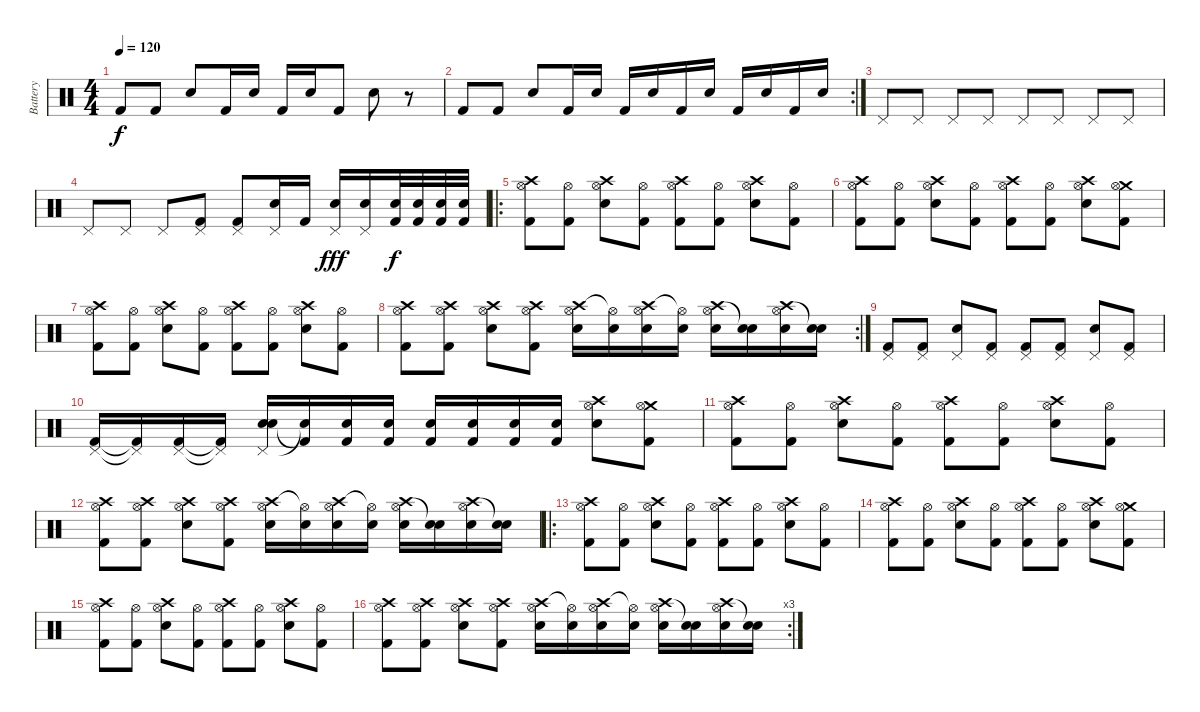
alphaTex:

\track ("Battery" "Battery") {instrument percussion}
\staff {score}
\articulation defaults
\ts (4 4)
\tempo 120
\clef neutral
\ks c "Kick (hit) 2".8{dy f} "Kick (hit) 2".8 "Electric Snare (hit)".8 "Kick (hit) 2".16 "Electric Snare (hit)".16 "Kick (hit) 2".16 "Electric Snare (hit)".16 "Kick (hit) 2".8 "Electric Snare (hit)".8
r.8 |
\rc 2 "Kick (hit) 2".8 "Kick (hit) 2".8 "Electric Snare (hit)".8 "Kick (hit) 2".16 "Electric Snare (hit)".16 "Kick (hit) 2".16 "Electric Snare (hit)".16 "Kick (hit) 2".16 "Electric Snare (hit)".16 "Kick (hit) 2".16 "Electric Snare (hit)".16 "Kick (hit) 2".16 "Electric Snare (hit)".16
|
"Pedal Hi-Hat (hit)".8 "Pedal Hi-Hat (hit)".8 "Pedal Hi-Hat (hit)".8 "Pedal Hi-Hat (hit)".8 "Pedal Hi-Hat (hit)".8 "Pedal Hi-Hat (hit)".8 "Pedal Hi-Hat (hit)".8 "Pedal Hi-Hat (hit)".8 |
"Pedal Hi-Hat (hit)".8 "Pedal Hi-Hat (hit)".8 "Pedal Hi-Hat (hit)".8 ("Pedal Hi-Hat (hit)" "Kick (hit) 2").8 ("Pedal Hi-Hat (hit)" "Kick (hit) 2").8 ("Pedal Hi-Hat (hit)" "Electric Snare (hit)").16 "Kick (hit) 2".16 ("Pedal Hi-Hat (hit)" "Electric Snare (hit)").16{dy fff} ("Pedal Hi-Hat (hit)" "Electric Snare (hit)").16 ("Electric Snare (hit)" "Kick (hit) 2").32{dy f} ("Electric Snare (hit)" "Kick (hit) 2").32 ("Electric Snare (hit)" "Kick (hit) 2").32 ("Electric Snare (hit)" "Kick (hit) 2").32 |
\ro
("Crash high (hit)" "Hi-Hat (open)" "Kick (hit) 2").8 ("Hi-Hat (open)" "Kick (hit) 2").8 ("Crash high (hit)" "Hi-Hat (open)" "Electric Snare (hit)").8 ("Hi-Hat (open)" "Kick (hit) 2").8 ("Crash high (hit)" "Hi-Hat (open)" "Kick (hit) 2").8 ("Hi-Hat (open)" "Kick (hit) 2").8 ("Crash high (hit)" "Hi-Hat (open)" "Electric Snare (hit)").8 ("Hi-Hat (open)" "Kick (hit) 2").8 |
("Crash high (hit)" "Hi-Hat (open)" "Kick (hit) 2").8 ("Hi-Hat (open)" "Kick (hit) 2").8 ("Crash high (hit)" "Hi-Hat (open)" "Electric Snare (hit)").8 ("Hi-Hat (open)" "Kick (hit) 2").8 ("Crash high (hit)" "Hi-Hat (open)" "Kick (hit) 2").8 ("Hi-Hat (open)" "Kick (hit) 2").8 ("Crash high (hit)" "Hi-Hat (open)" "Electric Snare (hit)").8 ("Crash medium (hit)" "Hi-Hat (open)" "Kick (hit) 2").8 |
("Crash high (hit)" "Hi-Hat (open)" "Kick (hit) 2").8 ("Hi-Hat (open)" "Kick (hit) 2").8 ("Crash high (hit)" "Hi-Hat (open)" "Electric Snare (hit)").8 ("Hi-Hat (open)" "Kick (hit) 2").8 ("Crash high (hit)" "Hi-Hat (open)" "Kick (hit) 2").8 ("Hi-Hat (open)" "Kick (hit) 2").8 ("Crash high (hit)" "Hi-Hat (open)" "Electric Snare (hit)").8 ("Hi-Hat (open)" "Kick (hit) 2").8 |
\rc 2
("Crash high (hit)" "Hi-Hat (open)" "Kick (hit) 2").8 ("Crash high (hit)" "Hi-Hat (open)" "Kick (hit) 2").8 ("Crash high (hit)" "Hi-Hat (open)" "Electric Snare (hit)").8 ("Crash high (hit)" "Hi-Hat (open)" "Kick (hit) 2").8 ("Crash high (hit)" "Hi-Hat (open)" "Electric Snare (hit)").16 ("Hi-Hat (open)"{t} "Electric Snare (hit)").16 ("Crash high (hit)" "Hi-Hat (open)" "Electric Snare (hit)").16 ("Hi-Hat (open)"{t} "Electric Snare (hit)").16 ("Crash high (hit)" "Hi-Hat (open)" "Electric Snare (hit)").16 ("Snare (hit)"{t} "Electric Snare (hit)").16 ("Crash high (hit)" "Hi-Hat (open)" "Electric Snare (hit)").16 ("Snare (hit)"{t} "Electric Snare (hit)").16 |
("Pedal Hi-Hat (hit)" "Kick (hit) 2").8 ("Pedal Hi-Hat (hit)" "Kick (hit) 2").8 ("Pedal Hi-Hat (hit)" "Electric Snare (hit)").8 ("Pedal Hi-Hat (hit)" "Kick (hit) 2").8 ("Pedal Hi-Hat (hit)" "Kick (hit) 2").8 ("Pedal Hi-Hat (hit)" "Kick (hit) 2").8 ("Pedal Hi-Hat (hit)" "Electric Snare (hit)").8 ("Pedal Hi-Hat (hit)" "Kick (hit) 2").8 |
("Pedal Hi-Hat (hit)" "Kick (hit) 2").16 ("Pedal Hi-Hat (hit)"{t} "Kick (hit) 2"{t}).16 ("Pedal Hi-Hat (hit)" "Kick (hit) 2").16 ("Pedal Hi-Hat (hit)"{t} "Kick (hit) 2"{t}).16 ("Pedal Hi-Hat (hit)" "Electric Snare (hit)" "Electric Snare (hit)").16 ("Snare (hit)"{t} "Kick (hit) 2"{t}).16 ("Electric Snare (hit)" "Kick (hit) 2").16 ("Electric Snare (hit)" "Kick (hit) 2").16 ("Electric Snare (hit)" "Kick (hit) 2").16 ("Electric Snare (hit)" "Kick (hit) 2").16 ("Electric Snare (hit)" "Kick (hit) 2").16 ("Electric Snare (hit)" "Kick (hit) 2").16 ("Crash high (hit)" "Hi-Hat (open)" "Electric Snare (hit)").8 ("Crash medium (hit)" "Hi-Hat (open)" "Kick (hit) 2").8 |
("Crash high (hit)" "Hi-Hat (open)" "Kick (hit) 2").8 ("Hi-Hat (open)" "Kick (hit) 2").8 ("Crash high (hit)" "Hi-Hat (open)" "Electric Snare (hit)").8 ("Hi-Hat (open)" "Kick (hit) 2").8 ("Crash high (hit)" "Hi-Hat (open)" "Kick (hit) 2").8 ("Hi-Hat (open)" "Kick (hit) 2").8 ("Crash high (hit)" "Hi-Hat (open)" "Electric Snare (hit)").8 ("Hi-Hat (open)" "Kick (hit) 2").8 |
("Crash high (hit)" "Hi-Hat (open)" "Kick (hit) 2").8 ("Crash high (hit)" "Hi-Hat (open)" "Kick (hit) 2").8 ("Crash high (hit)" "Hi-Hat (open)" "Electric Snare (hit)").8 ("Crash high (hit)" "Hi-Hat (open)" "Kick (hit) 2").8 ("Crash high (hit)" "Hi-Hat (open)" "Electric Snare (hit)").16 ("Hi-Hat (open)"{t} "Electric Snare (hit)").16 ("Crash high (hit)" "Hi-Hat (open)" "Electric Snare (hit)").16 ("Hi-Hat (open)"{t} "Electric Snare (hit)").16 ("Crash high (hit)" "Hi-Hat (open)" "Electric Snare (hit)").16 ("Snare (hit)"{t} "Electric Snare (hit)").16 ("Crash high (hit)" "Hi-Hat (open)" "Electric Snare (hit)").16 ("Snare (hit)"{t} "Electric Snare (hit)").16 |
\ro
("Crash high (hit)" "Hi-Hat (open)" "Kick (hit) 2").8 ("Hi-Hat (open)" "Kick (hit) 2").8 ("Crash high (hit)" "Hi-Hat (open)" "Electric Snare (hit)").8 ("Hi-Hat (open)" "Kick (hit) 2").8 ("Crash high (hit)" "Hi-Hat (open)" "Kick (hit) 2").8 ("Hi-Hat (open)" "Kick (hit) 2").8 ("Crash high (hit)" "Hi-Hat (open)" "Electric Snare (hit)").8 ("Hi-Hat (open)" "Kick (hit) 2").8 |
("Crash high (hit)" "Hi-Hat (open)" "Kick (hit) 2").8 ("Hi-Hat (open)" "Kick (hit) 2").8 ("Crash high (hit)" "Hi-Hat (open)" "Electric Snare (hit)").8 ("Hi-Hat (open)" "Kick (hit) 2").8 ("Crash high (hit)" "Hi-Hat (open)" "Kick (hit) 2").8 ("Hi-Hat (open)" "Kick (hit) 2").8 ("Crash high (hit)" "Hi-Hat (open)" "Electric Snare (hit)").8 ("Crash medium (hit)" "Hi-Hat (open)" "Kick (hit) 2").8 |
("Crash high (hit)" "Hi-Hat (open)" "Kick (hit) 2").8 ("Hi-Hat (open)" "Kick (hit) 2").8 ("Crash high (hit)" "Hi-Hat (open)" "Electric Snare (hit)").8 ("Hi-Hat (open)" "Kick (hit) 2").8 ("Crash high (hit)" "Hi-Hat (open)" "Kick (hit) 2").8 ("Hi-Hat (open)" "Kick (hit) 2").8 ("Crash high (hit)" "Hi-Hat (open)" "Electric Snare (hit)").8 ("Hi-Hat (open)" "Kick (hit) 2").8 |
\rc 3
("Crash high (hit)" "Hi-Hat (open)" "Kick (hit) 2").8 ("Crash high (hit)" "Hi-Hat (open)" "Kick (hit) 2").8 ("Crash high (hit)" "Hi-Hat (open)" "Electric Snare (hit)").8 ("Crash high (hit)" "Hi-Hat (open)" "Kick (hit) 2").8 ("Crash high (hit)" "Hi-Hat (open)" "Electric Snare (hit)").16 ("Hi-Hat (open)"{t} "Electric Snare (hit)").16 ("Crash high (hit)" "Hi-Hat (open)" "Electric Snare (hit)").16 ("Hi-Hat (open)"{t} "Electric Snare (hit)").16 ("Crash high (hit)" "Hi-Hat (open)" "Electric Snare (hit)").16 ("Snare (hit)"{t} "Electric Snare (hit)").16 ("Crash high (hit)" "Hi-Hat (open)" "Electric Snare (hit)").16 ("Snare (hit)"{t} "Electric Snare (hit)").16
